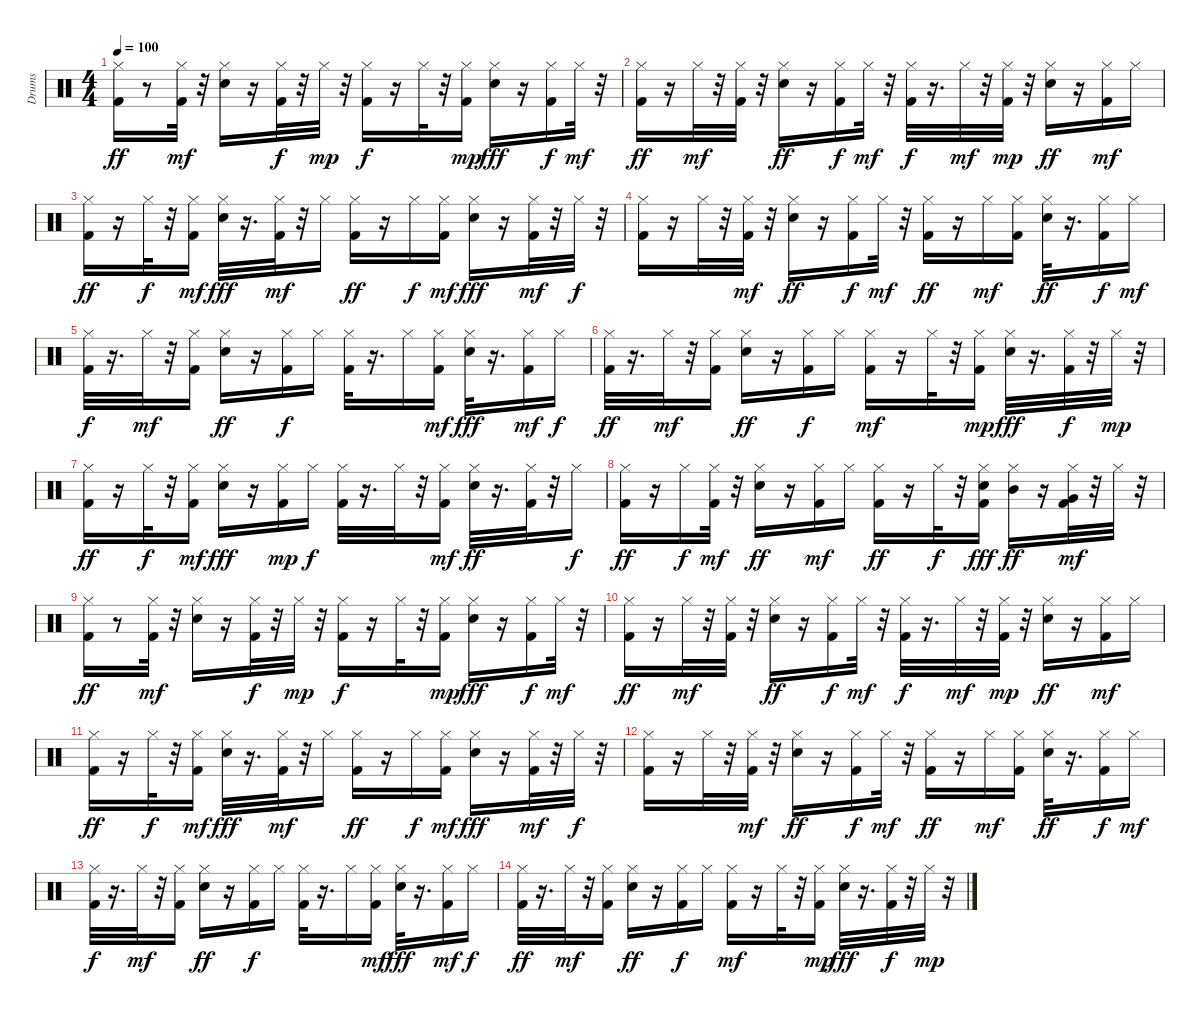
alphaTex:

\track ("Drums" "Drums") {instrument percussion}
\staff {score}
\articulation defaults
\ts (4 4)
\tempo 100
\clef neutral
\ks c
("Kick (hit) 2" "Hi-Hat (closed)").16{dy ff} r.8 ("Hi-Hat (closed)" "Kick (hit) 2").32{dy mf} r.32 ("Snare (hit) 2" "Hi-Hat (closed)").16 r.16 ("Kick (hit) 2" "Hi-Hat (closed)").32{dy f} r.32 "Hi-Hat (closed)".32{dy mp} r.32 ("Kick (hit) 2" "Hi-Hat (closed)").16{dy f} r.16 "Hi-Hat (closed)".32 r.32 ("Kick (hit) 2" "Hi-Hat (closed)").16{dy mp} ("Hi-Hat (closed)" "Snare (hit) 2").16{dy fff} r.16 ("Kick (hit) 2" "Hi-Hat (closed)").16{dy f} "Hi-Hat (closed)".32{dy mf} r.32 |
("Kick (hit) 2" "Hi-Hat (closed)").16{dy ff} r.16 "Hi-Hat (closed)".32{dy mf} r.32 ("Kick (hit) 2" "Hi-Hat (closed)").32 r.32 ("Hi-Hat (closed)" "Snare (hit) 2").16{dy ff} r.16 ("Kick (hit) 2" "Hi-Hat (closed)").16{dy f} "Hi-Hat (closed)".32{dy mf} r.32 ("Kick (hit) 2" "Hi-Hat (closed)").32{dy f} r.16{d} "Hi-Hat (closed)".32{dy mf} r.32 ("Kick (hit) 2" "Hi-Hat (closed)").32{dy mp} r.32 ("Hi-Hat (closed)" "Snare (hit) 2").16{dy ff} r.16 ("Hi-Hat (closed)" "Kick (hit) 2").16{dy mf} "Hi-Hat (closed)".16 |
("Hi-Hat (closed)" "Kick (hit) 2").16{dy ff} r.16 "Hi-Hat (closed)".32{dy f} r.32 ("Kick (hit) 2" "Hi-Hat (closed)").16{dy mf} ("Hi-Hat (closed)" "Snare (hit) 2").32{dy fff} r.16{d} ("Kick (hit) 2" "Hi-Hat (closed)").32{dy mf} r.32 "Hi-Hat (closed)".16 ("Hi-Hat (closed)" "Kick (hit) 2").16{dy ff} r.16 "Hi-Hat (closed)".16{dy f} ("Kick (hit) 2" "Hi-Hat (closed)").16{dy mf} ("Hi-Hat (closed)" "Snare (hit) 2").16{dy fff} r.16 ("Kick (hit) 2" "Hi-Hat (closed)").32{dy mf} r.32 "Hi-Hat (closed)".32{dy f} r.32 |
("Hi-Hat (closed)" "Kick (hit) 2").16 r.16 "Hi-Hat (closed)".32 r.32 ("Kick (hit) 2" "Hi-Hat (closed)").32{dy mf} r.32 ("Hi-Hat (closed)" "Snare (hit) 2").16{dy ff} r.16 ("Kick (hit) 2" "Hi-Hat (closed)").16{dy f} "Hi-Hat (closed)".32{dy mf} r.32 ("Kick (hit) 2" "Hi-Hat (closed)").16{dy ff} r.16 "Hi-Hat (closed)".16{dy mf} ("Kick (hit) 2" "Hi-Hat (closed)").16 ("Hi-Hat (closed)" "Snare (hit) 2").32{dy ff} r.16{d} ("Kick (hit) 2" "Hi-Hat (closed)").16{dy f} "Hi-Hat (closed)".16{dy mf} |
("Kick (hit) 2" "Hi-Hat (closed)").32{dy f} r.16{d} "Hi-Hat (closed)".32{dy mf} r.32 ("Kick (hit) 2" "Hi-Hat (closed)").16 ("Hi-Hat (closed)" "Snare (hit) 2").16{dy ff} r.16 ("Kick (hit) 2" "Hi-Hat (closed)").16{dy f} "Hi-Hat (closed)".16 ("Kick (hit) 2" "Hi-Hat (closed)").32 r.16{d} "Hi-Hat (closed)".16 ("Kick (hit) 2" "Hi-Hat (closed)").16{dy mf} ("Hi-Hat (closed)" "Snare (hit) 2").32{dy fff} r.16{d} ("Kick (hit) 2" "Hi-Hat (closed)").16{dy mf} "Hi-Hat (closed)".16{dy f} |
("Kick (hit) 2" "Hi-Hat (closed)").32{dy ff} r.16{d} "Hi-Hat (closed)".32{dy mf} r.32 ("Kick (hit) 2" "Hi-Hat (closed)").16 ("Hi-Hat (closed)" "Snare (hit) 2").16{dy ff} r.16 ("Kick (hit) 2" "Hi-Hat (closed)").16{dy f} "Hi-Hat (closed)".16 ("Hi-Hat (closed)" "Kick (hit) 2").16{dy mf} r.16 "Hi-Hat (closed)".32 r.32 ("Kick (hit) 2" "Hi-Hat (closed)").16{dy mp} ("Hi-Hat (closed)" "Snare (hit) 2").32{dy fff} r.16{d} ("Kick (hit) 2" "Hi-Hat (closed)").32{dy f} r.32 "Hi-Hat (closed)".32{dy mp} r.32 |
("Kick (hit) 2" "Hi-Hat (closed)").16{dy ff} r.16 "Hi-Hat (closed)".32{dy f} r.32 ("Hi-Hat (closed)" "Kick (hit) 2").16{dy mf} ("Hi-Hat (closed)" "Snare (hit) 2").16{dy fff} r.16 ("Kick (hit) 2" "Hi-Hat (closed)").16{dy mp} "Hi-Hat (closed)".16{dy f} ("Kick (hit) 2" "Hi-Hat (closed)").32 r.16{d} "Hi-Hat (closed)".32 r.32 ("Kick (hit) 2" "Hi-Hat (closed)").16{dy mf} ("Hi-Hat (closed)" "Snare (hit) 2").32{dy ff} r.16{d} ("Kick (hit) 2" "Hi-Hat (closed)").32 r.32 "Hi-Hat (closed)".16{dy f} |
("Hi-Hat (closed)" "Kick (hit) 2").16{dy ff} r.16 "Hi-Hat (closed)".16{dy f} ("Kick (hit) 2" "Hi-Hat (closed)").32{dy mf} r.32 ("Hi-Hat (closed)" "Snare (hit) 2").16{dy ff} r.16 ("Hi-Hat (closed)" "Kick (hit) 2").16{dy mf} "Hi-Hat (closed)".16 ("Hi-Hat (closed)" "Kick (hit) 2").16{dy ff} r.16 "Hi-Hat (closed)".32{dy f} r.32 ("Hi-Hat (closed)" "Kick (hit) 2" "Snare (hit) 2").16{dy fff} ("Hi-Hat (closed)" "Mid Tom (hit)").16{dy ff} r.16 ("Kick (hit) 2" "Hi-Hat (closed)" "Very Low Tom (hit)").32{dy mf} r.32 "Hi-Hat (closed)".32 r.32 |
("Kick (hit) 2" "Hi-Hat (closed)").16{dy ff} r.8 ("Hi-Hat (closed)" "Kick (hit) 2").32{dy mf} r.32 ("Snare (hit) 2" "Hi-Hat (closed)").16 r.16 ("Kick (hit) 2" "Hi-Hat (closed)").32{dy f} r.32 "Hi-Hat (closed)".32{dy mp} r.32 ("Kick (hit) 2" "Hi-Hat (closed)").16{dy f} r.16 "Hi-Hat (closed)".32 r.32 ("Kick (hit) 2" "Hi-Hat (closed)").16{dy mp} ("Hi-Hat (closed)" "Snare (hit) 2").16{dy fff} r.16 ("Kick (hit) 2" "Hi-Hat (closed)").16{dy f} "Hi-Hat (closed)".32{dy mf} r.32 |
("Kick (hit) 2" "Hi-Hat (closed)").16{dy ff} r.16 "Hi-Hat (closed)".32{dy mf} r.32 ("Kick (hit) 2" "Hi-Hat (closed)").32 r.32 ("Hi-Hat (closed)" "Snare (hit) 2").16{dy ff} r.16 ("Kick (hit) 2" "Hi-Hat (closed)").16{dy f} "Hi-Hat (closed)".32{dy mf} r.32 ("Kick (hit) 2" "Hi-Hat (closed)").32{dy f} r.16{d} "Hi-Hat (closed)".32{dy mf} r.32 ("Kick (hit) 2" "Hi-Hat (closed)").32{dy mp} r.32 ("Hi-Hat (closed)" "Snare (hit) 2").16{dy ff} r.16 ("Hi-Hat (closed)" "Kick (hit) 2").16{dy mf} "Hi-Hat (closed)".16 |
("Hi-Hat (closed)" "Kick (hit) 2").16{dy ff} r.16 "Hi-Hat (closed)".32{dy f} r.32 ("Kick (hit) 2" "Hi-Hat (closed)").16{dy mf} ("Hi-Hat (closed)" "Snare (hit) 2").32{dy fff} r.16{d} ("Kick (hit) 2" "Hi-Hat (closed)").32{dy mf} r.32 "Hi-Hat (closed)".16 ("Hi-Hat (closed)" "Kick (hit) 2").16{dy ff} r.16 "Hi-Hat (closed)".16{dy f} ("Kick (hit) 2" "Hi-Hat (closed)").16{dy mf} ("Hi-Hat (closed)" "Snare (hit) 2").16{dy fff} r.16 ("Kick (hit) 2" "Hi-Hat (closed)").32{dy mf} r.32 "Hi-Hat (closed)".32{dy f} r.32 |
("Hi-Hat (closed)" "Kick (hit) 2").16 r.16 "Hi-Hat (closed)".32 r.32 ("Kick (hit) 2" "Hi-Hat (closed)").32{dy mf} r.32 ("Hi-Hat (closed)" "Snare (hit) 2").16{dy ff} r.16 ("Kick (hit) 2" "Hi-Hat (closed)").16{dy f} "Hi-Hat (closed)".32{dy mf} r.32 ("Kick (hit) 2" "Hi-Hat (closed)").16{dy ff} r.16 "Hi-Hat (closed)".16{dy mf} ("Kick (hit) 2" "Hi-Hat (closed)").16 ("Hi-Hat (closed)" "Snare (hit) 2").32{dy ff} r.16{d} ("Kick (hit) 2" "Hi-Hat (closed)").16{dy f} "Hi-Hat (closed)".16{dy mf} |
("Kick (hit) 2" "Hi-Hat (closed)").32{dy f} r.16{d} "Hi-Hat (closed)".32{dy mf} r.32 ("Kick (hit) 2" "Hi-Hat (closed)").16 ("Hi-Hat (closed)" "Snare (hit) 2").16{dy ff} r.16 ("Kick (hit) 2" "Hi-Hat (closed)").16{dy f} "Hi-Hat (closed)".16 ("Kick (hit) 2" "Hi-Hat (closed)").32 r.16{d} "Hi-Hat (closed)".16 ("Kick (hit) 2" "Hi-Hat (closed)").16{dy mf} ("Hi-Hat (closed)" "Snare (hit) 2").32{dy fff} r.16{d} ("Kick (hit) 2" "Hi-Hat (closed)").16{dy mf} "Hi-Hat (closed)".16{dy f} |
("Kick (hit) 2" "Hi-Hat (closed)").32{dy ff} r.16{d} "Hi-Hat (closed)".32{dy mf} r.32 ("Kick (hit) 2" "Hi-Hat (closed)").16 ("Hi-Hat (closed)" "Snare (hit) 2").16{dy ff} r.16 ("Kick (hit) 2" "Hi-Hat (closed)").16{dy f} "Hi-Hat (closed)".16 ("Hi-Hat (closed)" "Kick (hit) 2").16{dy mf} r.16 "Hi-Hat (closed)".32 r.32 ("Kick (hit) 2" "Hi-Hat (closed)").16{dy mp} ("Hi-Hat (closed)" "Snare (hit) 2").32{dy fff} r.16{d} ("Kick (hit) 2" "Hi-Hat (closed)").32{dy f} r.32 "Hi-Hat (closed)".32{dy mp} r.32
